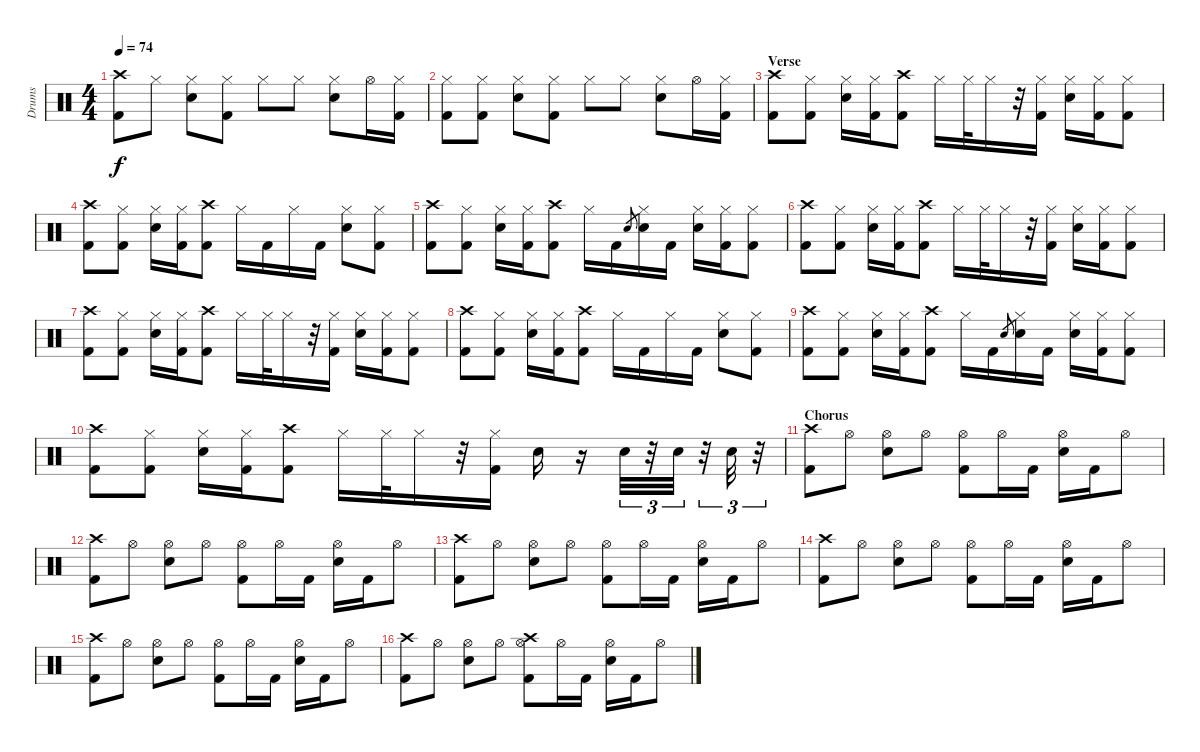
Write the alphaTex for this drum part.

\track ("Drums" "Drums") {instrument percussion}
\staff {score}
\articulation defaults
\ts (4 4)
\tempo 74
\clef neutral
\ks c
("Crash high (hit)" "Kick (hit) 2").8{dy f} "Hi-Hat (closed)".8 ("Hi-Hat (closed)" "Electric Snare (hit)").8 ("Hi-Hat (closed)" "Kick (hit) 2").8 "Hi-Hat (closed)".8 "Hi-Hat (closed)".8 ("Hi-Hat (closed)" "Electric Snare (hit)").8 "Hi-Hat (open)".16 ("Hi-Hat (closed)" "Kick (hit) 2").16 |
("Hi-Hat (closed)" "Kick (hit) 2").8 ("Hi-Hat (closed)" "Kick (hit) 2").8 ("Hi-Hat (closed)" "Electric Snare (hit)").8 ("Hi-Hat (closed)" "Kick (hit) 2").8 "Hi-Hat (closed)".8 "Hi-Hat (closed)".8 ("Hi-Hat (closed)" "Electric Snare (hit)").8 "Hi-Hat (open)".16 ("Hi-Hat (closed)" "Kick (hit) 2").16 |
\section ("" "Verse")
("Crash high (hit)" "Kick (hit) 2").8 ("Hi-Hat (closed)" "Kick (hit) 2").8 ("Hi-Hat (closed)" "Electric Snare (hit)").16 ("Hi-Hat (closed)" "Kick (hit) 2").16 ("Crash high (hit)" "Kick (hit) 2").8 "Hi-Hat (closed)".16 "Hi-Hat (closed)".32 "Hi-Hat (closed)".16 r.32 ("Hi-Hat (closed)" "Kick (hit) 2").16 ("Hi-Hat (closed)" "Electric Snare (hit)").16 ("Hi-Hat (closed)" "Kick (hit) 2").16 ("Hi-Hat (closed)" "Kick (hit) 2").8 |
("Crash high (hit)" "Kick (hit) 2").8 ("Hi-Hat (closed)" "Kick (hit) 2").8 ("Hi-Hat (closed)" "Electric Snare (hit)").16 ("Hi-Hat (closed)" "Kick (hit) 2").16 ("Crash high (hit)" "Kick (hit) 2").8 "Hi-Hat (closed)".16 "Kick (hit) 2".16 "Hi-Hat (closed)".16 "Kick (hit) 2".16 ("Hi-Hat (closed)" "Electric Snare (hit)").8 ("Hi-Hat (closed)" "Kick (hit) 2").8 |
("Crash high (hit)" "Kick (hit) 2").8 ("Hi-Hat (closed)" "Kick (hit) 2").8 ("Hi-Hat (closed)" "Electric Snare (hit)").16 ("Hi-Hat (closed)" "Kick (hit) 2").16 ("Crash high (hit)" "Kick (hit) 2").8 "Hi-Hat (closed)".16 "Kick (hit) 2".16 "Electric Snare (hit)".8{gr} ("Hi-Hat (closed)" "Electric Snare (hit)").16 "Kick (hit) 2".16 ("Hi-Hat (closed)" "Electric Snare (hit)").16 ("Hi-Hat (closed)" "Kick (hit) 2").16 ("Hi-Hat (closed)" "Kick (hit) 2").8 |
("Crash high (hit)" "Kick (hit) 2").8 ("Hi-Hat (closed)" "Kick (hit) 2").8 ("Hi-Hat (closed)" "Electric Snare (hit)").16 ("Hi-Hat (closed)" "Kick (hit) 2").16 ("Crash high (hit)" "Kick (hit) 2").8 "Hi-Hat (closed)".16 "Hi-Hat (closed)".32 "Hi-Hat (closed)".16 r.32 ("Hi-Hat (closed)" "Kick (hit) 2").16 ("Hi-Hat (closed)" "Electric Snare (hit)").16 ("Hi-Hat (closed)" "Kick (hit) 2").16 ("Hi-Hat (closed)" "Kick (hit) 2").8 |
("Crash high (hit)" "Kick (hit) 2").8 ("Hi-Hat (closed)" "Kick (hit) 2").8 ("Hi-Hat (closed)" "Electric Snare (hit)").16 ("Hi-Hat (closed)" "Kick (hit) 2").16 ("Crash high (hit)" "Kick (hit) 2").8 "Hi-Hat (closed)".16 "Hi-Hat (closed)".32 "Hi-Hat (closed)".16 r.32 ("Hi-Hat (closed)" "Kick (hit) 2").16 ("Hi-Hat (closed)" "Electric Snare (hit)").16 ("Hi-Hat (closed)" "Kick (hit) 2").16 ("Hi-Hat (closed)" "Kick (hit) 2").8 |
("Crash high (hit)" "Kick (hit) 2").8 ("Hi-Hat (closed)" "Kick (hit) 2").8 ("Hi-Hat (closed)" "Electric Snare (hit)").16 ("Hi-Hat (closed)" "Kick (hit) 2").16 ("Crash high (hit)" "Kick (hit) 2").8 "Hi-Hat (closed)".16 "Kick (hit) 2".16 "Hi-Hat (closed)".16 "Kick (hit) 2".16 ("Hi-Hat (closed)" "Electric Snare (hit)").8 ("Hi-Hat (closed)" "Kick (hit) 2").8 |
("Crash high (hit)" "Kick (hit) 2").8 ("Hi-Hat (closed)" "Kick (hit) 2").8 ("Hi-Hat (closed)" "Electric Snare (hit)").16 ("Hi-Hat (closed)" "Kick (hit) 2").16 ("Crash high (hit)" "Kick (hit) 2").8 "Hi-Hat (closed)".16 "Kick (hit) 2".16 "Electric Snare (hit)".8{gr} ("Hi-Hat (closed)" "Electric Snare (hit)").16 "Kick (hit) 2".16 ("Hi-Hat (closed)" "Electric Snare (hit)").16 ("Hi-Hat (closed)" "Kick (hit) 2").16 ("Hi-Hat (closed)" "Kick (hit) 2").8 |
("Crash high (hit)" "Kick (hit) 2").8 ("Hi-Hat (closed)" "Kick (hit) 2").8 ("Hi-Hat (closed)" "Electric Snare (hit)").16 ("Hi-Hat (closed)" "Kick (hit) 2").16 ("Crash high (hit)" "Kick (hit) 2").8 "Hi-Hat (closed)".16 "Hi-Hat (closed)".32 "Hi-Hat (closed)".16 r.32 ("Hi-Hat (closed)" "Kick (hit) 2").16 "Electric Snare (hit)".16 r.16 "Electric Snare (hit)".32{tu (3 2)} r.32{tu (3 2)} "Electric Snare (hit)".32{tu (3 2)} r.32{tu (3 2)} "Electric Snare (hit)".32{tu (3 2)} r.32{tu (3 2)} |
\section ("" "Chorus")
("Crash high (hit)" "Kick (hit) 2").8 "Hi-Hat (open)".8 ("Hi-Hat (open)" "Electric Snare (hit)").8 "Hi-Hat (open)".8 ("Hi-Hat (open)" "Kick (hit) 2").8 "Hi-Hat (open)".16 "Kick (hit) 2".16 ("Hi-Hat (open)" "Electric Snare (hit)").16 "Kick (hit) 2".16 "Hi-Hat (open)".8 |
("Crash high (hit)" "Kick (hit) 2").8 "Hi-Hat (open)".8 ("Hi-Hat (open)" "Electric Snare (hit)").8 "Hi-Hat (open)".8 ("Hi-Hat (open)" "Kick (hit) 2").8 "Hi-Hat (open)".16 "Kick (hit) 2".16 ("Hi-Hat (open)" "Electric Snare (hit)").16 "Kick (hit) 2".16 "Hi-Hat (open)".8 |
("Crash high (hit)" "Kick (hit) 2").8 "Hi-Hat (open)".8 ("Hi-Hat (open)" "Electric Snare (hit)").8 "Hi-Hat (open)".8 ("Hi-Hat (open)" "Kick (hit) 2").8 "Hi-Hat (open)".16 "Kick (hit) 2".16 ("Hi-Hat (open)" "Electric Snare (hit)").16 "Kick (hit) 2".16 "Hi-Hat (open)".8 |
("Crash high (hit)" "Kick (hit) 2").8 "Hi-Hat (open)".8 ("Hi-Hat (open)" "Electric Snare (hit)").8 "Hi-Hat (open)".8 ("Hi-Hat (open)" "Kick (hit) 2").8 "Hi-Hat (open)".16 "Kick (hit) 2".16 ("Hi-Hat (open)" "Electric Snare (hit)").16 "Kick (hit) 2".16 "Hi-Hat (open)".8 |
("Crash high (hit)" "Kick (hit) 2").8 "Hi-Hat (open)".8 ("Hi-Hat (open)" "Electric Snare (hit)").8 "Hi-Hat (open)".8 ("Hi-Hat (open)" "Kick (hit) 2").8 "Hi-Hat (open)".16 "Kick (hit) 2".16 ("Hi-Hat (open)" "Electric Snare (hit)").16 "Kick (hit) 2".16 "Hi-Hat (open)".8 |
("Crash high (hit)" "Kick (hit) 2").8 "Hi-Hat (open)".8 ("Hi-Hat (open)" "Electric Snare (hit)").8 "Hi-Hat (open)".8 ("Crash high (hit)" "Hi-Hat (open)" "Kick (hit) 2").8 "Hi-Hat (open)".16 "Kick (hit) 2".16 ("Hi-Hat (open)" "Electric Snare (hit)").16 "Kick (hit) 2".16 "Hi-Hat (open)".8
